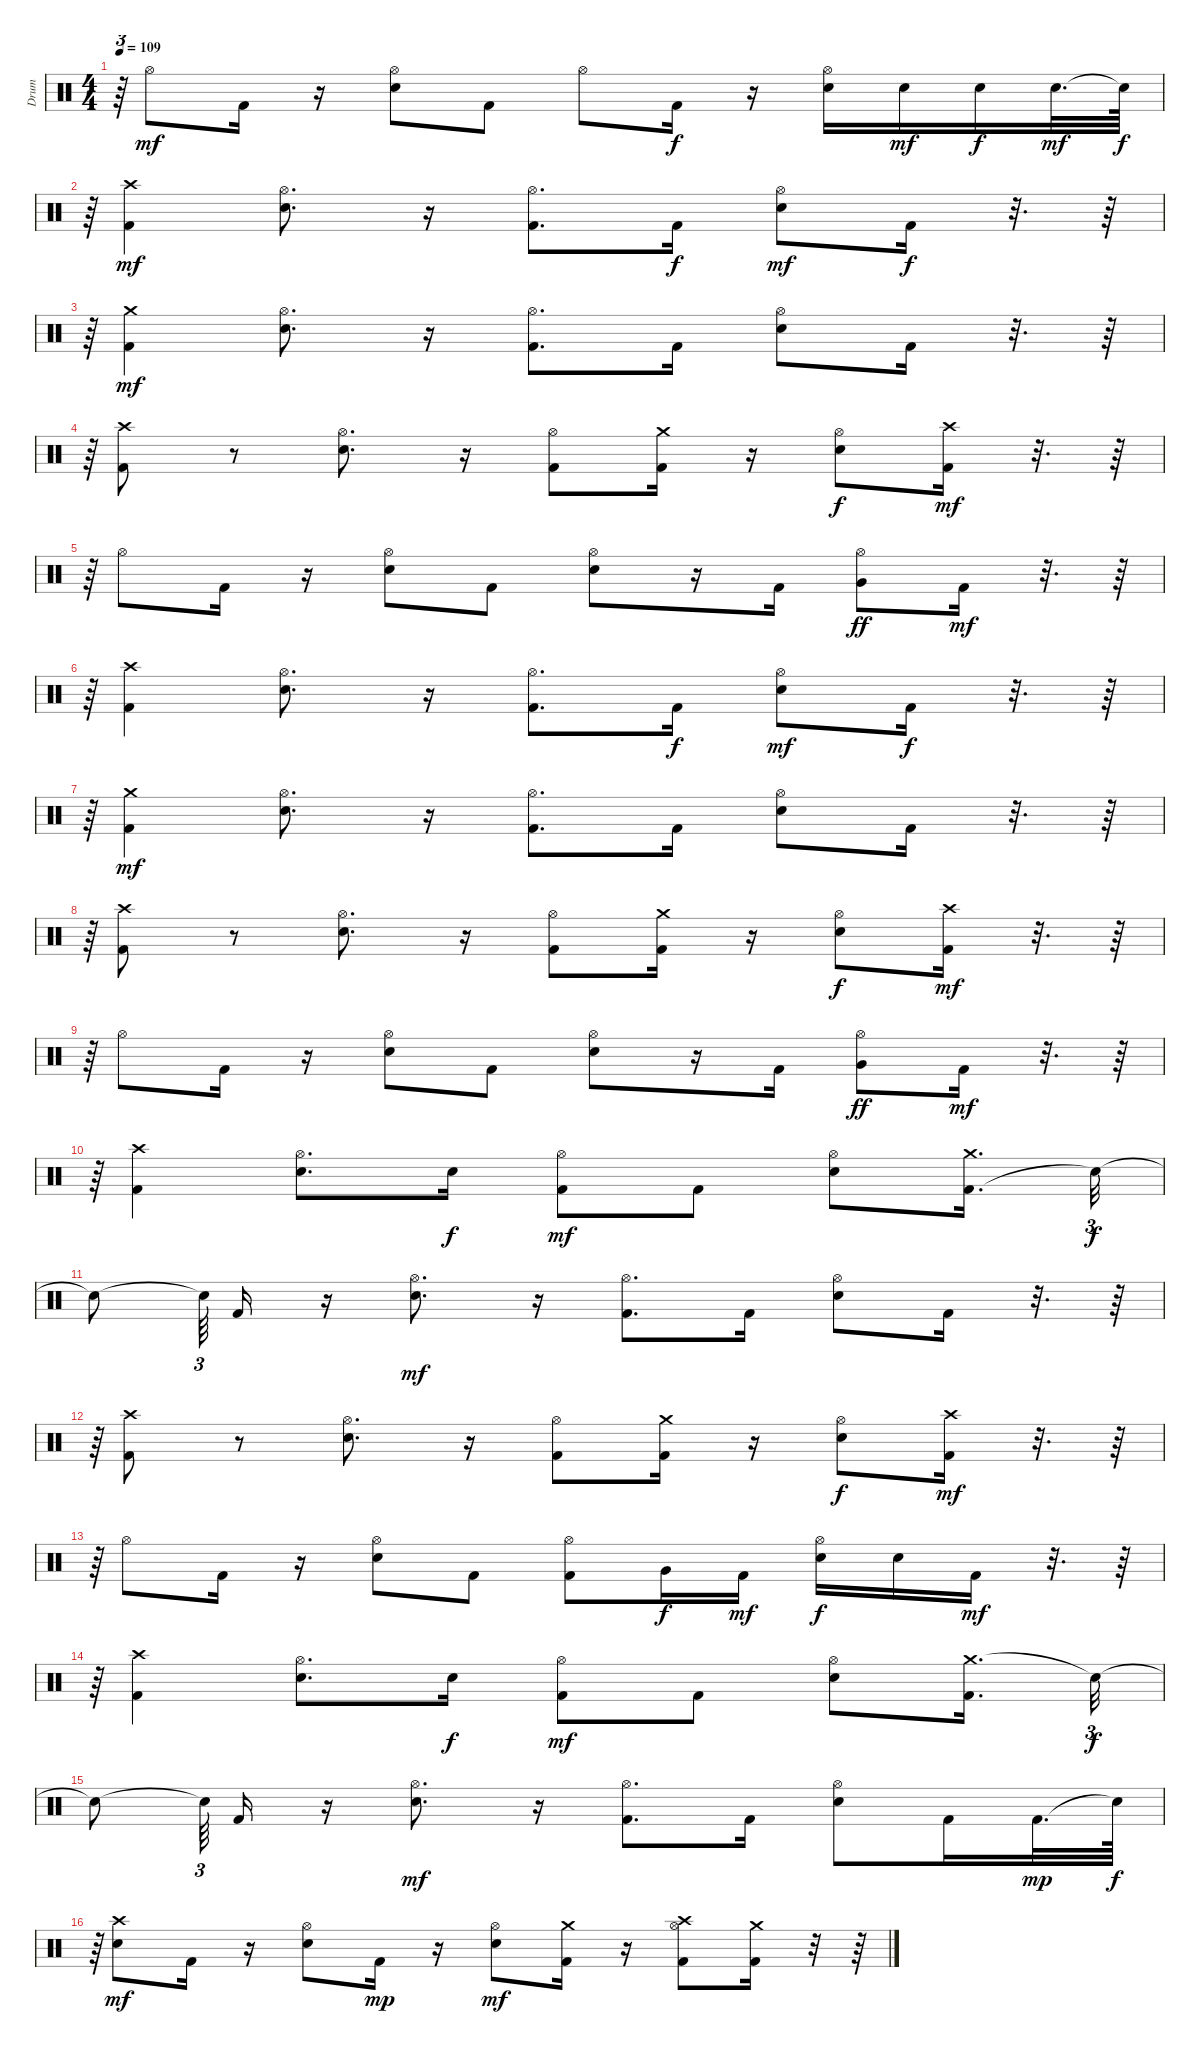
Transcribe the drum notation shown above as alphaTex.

\track ("Drum" "Drum") {instrument percussion}
\staff {score}
\articulation defaults
\ts (4 4)
\tempo 109
\clef neutral
\ks c
r.64{tu (3 2) dy mf} "Hi-Hat (open)".8 "Kick (hit) 2".16 r.16 ("Electric Snare (hit)" "Hi-Hat (open)").8 "Kick (hit) 2".8 "Hi-Hat (open)".8 "Kick (hit) 2".16{dy f} r.16 ("Electric Snare (hit)" "Hi-Hat (open)").16 "Electric Snare (hit)".16{dy mf} "Electric Snare (hit)".16{dy f} "Electric Snare (hit)".32{d dy mf} "Snare (hit)"{t}.64{dy f} |
r.64{tu (3 2)} ("Crash high (hit)" "Kick (hit) 2").4{dy mf} ("Hi-Hat (open)" "Electric Snare (hit)").8{d} r.16 ("Kick (hit) 2" "Hi-Hat (open)").8{d} "Kick (hit) 2".16{dy f} ("Electric Snare (hit)" "Hi-Hat (open)").8{dy mf} "Kick (hit) 2".16{dy f} r.32{d} r.64 |
r.64{tu (3 2)} ("Kick (hit) 2" "Crash medium (hit)").4{dy mf} ("Electric Snare (hit)" "Hi-Hat (open)").8{d} r.16 ("Hi-Hat (open)" "Kick (hit) 2").8{d} "Kick (hit) 2".16 ("Hi-Hat (open)" "Electric Snare (hit)").8 "Kick (hit) 2".16 r.32{d} r.64 |
r.64{tu (3 2)} ("Kick (hit) 2" "Crash high (hit)").8 r.8 ("Electric Snare (hit)" "Hi-Hat (open)").8{d} r.16 ("Kick (hit) 2" "Hi-Hat (open)").8 ("Kick (hit) 2" "Crash medium (hit)").16 r.16 ("Electric Snare (hit)" "Hi-Hat (open)").8{dy f} ("Crash high (hit)" "Kick (hit) 2").16{dy mf} r.32{d} r.64 |
r.64{tu (3 2)} "Hi-Hat (open)".8 "Kick (hit) 2".16 r.16 ("Electric Snare (hit)" "Hi-Hat (open)").8 "Kick (hit) 2".8 ("Electric Snare (hit)" "Hi-Hat (open)").8 r.16 "Kick (hit) 2".16 ("Very Low Tom (hit)" "Hi-Hat (open)").8{dy ff} "Kick (hit) 2".16{dy mf} r.32{d} r.64 |
r.64{tu (3 2)} ("Crash high (hit)" "Kick (hit) 2").4 ("Hi-Hat (open)" "Electric Snare (hit)").8{d} r.16 ("Kick (hit) 2" "Hi-Hat (open)").8{d} "Kick (hit) 2".16{dy f} ("Hi-Hat (open)" "Electric Snare (hit)").8{dy mf} "Kick (hit) 2".16{dy f} r.32{d} r.64 |
r.64{tu (3 2)} ("Crash medium (hit)" "Kick (hit) 2").4{dy mf} ("Hi-Hat (open)" "Electric Snare (hit)").8{d} r.16 ("Kick (hit) 2" "Hi-Hat (open)").8{d} "Kick (hit) 2".16 ("Electric Snare (hit)" "Hi-Hat (open)").8 "Kick (hit) 2".16 r.32{d} r.64 |
r.64{tu (3 2)} ("Kick (hit) 2" "Crash high (hit)").8 r.8 ("Hi-Hat (open)" "Electric Snare (hit)").8{d} r.16 ("Hi-Hat (open)" "Kick (hit) 2").8 ("Kick (hit) 2" "Crash medium (hit)").16 r.16 ("Electric Snare (hit)" "Hi-Hat (open)").8{dy f} ("Crash high (hit)" "Kick (hit) 2").16{dy mf} r.32{d} r.64 |
r.64{tu (3 2)} "Hi-Hat (open)".8 "Kick (hit) 2".16 r.16 ("Electric Snare (hit)" "Hi-Hat (open)").8 "Kick (hit) 2".8 ("Hi-Hat (open)" "Electric Snare (hit)").8 r.16 "Kick (hit) 2".16 ("Hi-Hat (open)" "Very Low Tom (hit)").8{dy ff} "Kick (hit) 2".16{dy mf} r.32{d} r.64 |
r.64{tu (3 2)} ("Kick (hit) 2" "Crash high (hit)").4 ("Electric Snare (hit)" "Hi-Hat (open)").8{d} "Electric Snare (hit)".16{dy f} ("Kick (hit) 2" "Hi-Hat (open)").8{dy mf} "Kick (hit) 2".8 ("Hi-Hat (open)" "Electric Snare (hit)").8 ("Kick (hit) 2" "Crash medium (hit)").16{d} "Snare (hit)"{t}.32{tu (3 2) dy f} |
"Snare (hit)"{t}.8 "Snare (hit)"{t}.64{tu (3 2) beam splitsecondary} "Kick (hit) 2".16 r.16 ("Electric Snare (hit)" "Hi-Hat (open)").8{d dy mf} r.16 ("Hi-Hat (open)" "Kick (hit) 2").8{d} "Kick (hit) 2".16 ("Hi-Hat (open)" "Electric Snare (hit)").8 "Kick (hit) 2".16 r.32{d} r.64 |
r.64{tu (3 2)} ("Crash high (hit)" "Kick (hit) 2").8 r.8 ("Electric Snare (hit)" "Hi-Hat (open)").8{d} r.16 ("Kick (hit) 2" "Hi-Hat (open)").8 ("Crash medium (hit)" "Kick (hit) 2").16 r.16 ("Hi-Hat (open)" "Electric Snare (hit)").8{dy f} ("Crash high (hit)" "Kick (hit) 2").16{dy mf} r.32{d} r.64 |
r.64{tu (3 2)} "Hi-Hat (open)".8 "Kick (hit) 2".16 r.16 ("Hi-Hat (open)" "Electric Snare (hit)").8 "Kick (hit) 2".8 ("Kick (hit) 2" "Hi-Hat (open)").8 "Very Low Tom (hit)".16{dy f} "Kick (hit) 2".16{dy mf} ("Electric Snare (hit)" "Hi-Hat (open)").16{dy f} "Electric Snare (hit)".16 "Kick (hit) 2".16{dy mf} r.32{d} r.64 |
r.64{tu (3 2)} ("Kick (hit) 2" "Crash high (hit)").4 ("Electric Snare (hit)" "Hi-Hat (open)").8{d} "Electric Snare (hit)".16{dy f} ("Kick (hit) 2" "Hi-Hat (open)").8{dy mf} "Kick (hit) 2".8 ("Electric Snare (hit)" "Hi-Hat (open)").8 ("Crash medium (hit)" "Kick (hit) 2").16{d} "Snare (hit)"{t}.32{tu (3 2) dy f} |
"Snare (hit)"{t}.8 "Snare (hit)"{t}.64{tu (3 2) beam splitsecondary} "Kick (hit) 2".16 r.16 ("Electric Snare (hit)" "Hi-Hat (open)").8{d dy mf} r.16 ("Hi-Hat (open)" "Kick (hit) 2").8{d} "Kick (hit) 2".16 ("Hi-Hat (open)" "Electric Snare (hit)").8 "Kick (hit) 2".16 "Kick (hit) 2".32{d dy mp} "Snare (hit)"{t}.64{dy f} |
r.64{tu (3 2)} ("Crash high (hit)" "Electric Snare (hit)").8{dy mf} "Kick (hit) 2".16 r.16 ("Hi-Hat (open)" "Electric Snare (hit)").8 "Kick (hit) 2".16{dy mp} r.16 ("Electric Snare (hit)" "Hi-Hat (open)").8{dy mf} ("Crash medium (hit)" "Kick (hit) 2").16 r.16 ("Crash high (hit)" "Hi-Hat (open)" "Kick (hit) 2").8 ("Kick (hit) 2" "Crash medium (hit)").16 r.32 r.64
